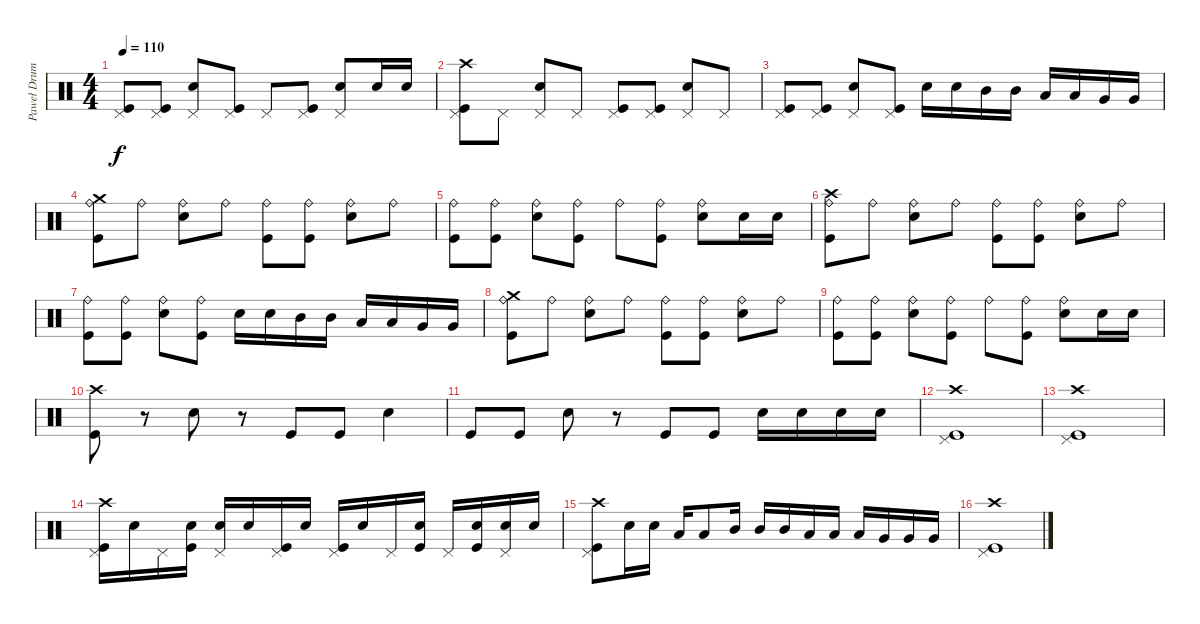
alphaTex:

\track ("Paweł Drums" "Paweł Drum") {instrument percussion}
\staff {score}
\articulation defaults
\ts (4 4)
\tempo 110
\clef neutral
\ks c
("Pedal Hi-Hat (hit)" "Kick (hit)").8{dy f} ("Pedal Hi-Hat (hit)" "Kick (hit)").8 ("Pedal Hi-Hat (hit)" "Snare (hit) 2").8 ("Pedal Hi-Hat (hit)" "Kick (hit)").8 "Pedal Hi-Hat (hit)".8 ("Pedal Hi-Hat (hit)" "Kick (hit)").8 ("Pedal Hi-Hat (hit)" "Snare (hit) 2").8 "Snare (hit) 2".16 "Snare (hit) 2".16 |
("Pedal Hi-Hat (hit)" "Crash high (hit)" "Kick (hit)").8 "Pedal Hi-Hat (hit)".8 ("Pedal Hi-Hat (hit)" "Snare (hit) 2").8 "Pedal Hi-Hat (hit)".8 ("Pedal Hi-Hat (hit)" "Kick (hit)").8 ("Pedal Hi-Hat (hit)" "Kick (hit)").8 ("Pedal Hi-Hat (hit)" "Snare (hit) 2").8 "Pedal Hi-Hat (hit)".8 |
("Pedal Hi-Hat (hit)" "Kick (hit)").8 ("Pedal Hi-Hat (hit)" "Kick (hit)").8 ("Pedal Hi-Hat (hit)" "Snare (hit) 2").8 ("Pedal Hi-Hat (hit)" "Kick (hit)").8 "Snare (hit) 2".16 "Snare (hit) 2".16 "Mid Tom (hit)".16 "Mid Tom (hit)".16 "Low Tom (hit)".16 "Low Tom (hit)".16 "Very Low Tom (hit)".16 "Very Low Tom (hit)".16 |
("Ride (bell)" "Crash medium (hit)" "Kick (hit)").8 "Ride (bell)".8 ("Ride (bell)" "Snare (hit) 2").8 "Ride (bell)".8 ("Ride (bell)" "Kick (hit)").8 ("Ride (bell)" "Kick (hit)").8 ("Ride (bell)" "Snare (hit) 2").8 "Ride (bell)".8 |
("Ride (bell)" "Kick (hit)").8 ("Ride (bell)" "Kick (hit)").8 ("Ride (bell)" "Snare (hit) 2").8 ("Ride (bell)" "Kick (hit)").8 "Ride (bell)".8 ("Ride (bell)" "Kick (hit)").8 ("Ride (bell)" "Snare (hit) 2").8 "Snare (hit) 2".16 "Snare (hit) 2".16 |
("Ride (bell)" "Crash high (hit)" "Kick (hit)").8 "Ride (bell)".8 ("Ride (bell)" "Snare (hit) 2").8 "Ride (bell)".8 ("Ride (bell)" "Kick (hit)").8 ("Ride (bell)" "Kick (hit)").8 ("Ride (bell)" "Snare (hit) 2").8 "Ride (bell)".8 |
("Ride (bell)" "Kick (hit)").8 ("Ride (bell)" "Kick (hit)").8 ("Ride (bell)" "Snare (hit) 2").8 ("Ride (bell)" "Kick (hit)").8 "Snare (hit) 2".16 "Snare (hit) 2".16 "Mid Tom (hit)".16 "Mid Tom (hit)".16 "Low Tom (hit)".16 "Low Tom (hit)".16 "Very Low Tom (hit)".16 "Very Low Tom (hit)".16 |
("Ride (bell)" "Crash medium (hit)" "Kick (hit)").8 "Ride (bell)".8 ("Ride (bell)" "Snare (hit) 2").8 "Ride (bell)".8 ("Ride (bell)" "Kick (hit)").8 ("Ride (bell)" "Kick (hit)").8 ("Ride (bell)" "Snare (hit) 2").8 "Ride (bell)".8 |
("Ride (bell)" "Kick (hit)").8 ("Ride (bell)" "Kick (hit)").8 ("Ride (bell)" "Snare (hit) 2").8 ("Ride (bell)" "Kick (hit)").8 "Ride (bell)".8 ("Ride (bell)" "Kick (hit)").8 ("Ride (bell)" "Snare (hit) 2").8 "Snare (hit) 2".16 "Snare (hit) 2".16 |
("Crash high (hit)" "Kick (hit)").8 r.8 "Snare (hit) 2".8 r.8 "Kick (hit)".8 "Kick (hit)".8 "Snare (hit) 2".4 |
"Kick (hit)".8 "Kick (hit)".8 "Snare (hit) 2".8 r.8 "Kick (hit)".8 "Kick (hit)".8 "Snare (hit) 2".16 "Snare (hit) 2".16 "Snare (hit) 2".16 "Snare (hit) 2".16 |
("Pedal Hi-Hat (hit)" "Crash high (hit)" "Kick (hit)").1 |
("Pedal Hi-Hat (hit)" "Crash high (hit)" "Kick (hit)").1 |
("Pedal Hi-Hat (hit)" "Crash high (hit)" "Kick (hit)").16 "Snare (hit)".16 "Pedal Hi-Hat (hit)".16 ("Snare (hit)" "Kick (hit)").16 ("Pedal Hi-Hat (hit)" "Snare (hit) 2").16 "Snare (hit)".16 ("Pedal Hi-Hat (hit)" "Kick (hit)").16 "Snare (hit)".16 ("Pedal Hi-Hat (hit)" "Kick (hit)").16 "Snare (hit)".16 "Pedal Hi-Hat (hit)".16 ("Snare (hit)" "Kick (hit)").16 "Pedal Hi-Hat (hit)".16 ("Snare (hit)" "Kick (hit)").16 ("Pedal Hi-Hat (hit)" "Snare (hit) 2").16 "Snare (hit) 2".16 |
("Pedal Hi-Hat (hit)" "Crash high (hit)" "Kick (hit)").8 "Snare (hit) 2".16 "Snare (hit) 2".16 "Low Tom (hit)".16 "Low Tom (hit)".8 "Mid Tom (hit)".16 "Mid Tom (hit)".16 "Mid Tom (hit)".16 "Low Tom (hit)".16 "Low Tom (hit)".16 "Low Tom (hit)".16 "Very Low Tom (hit)".16 "Very Low Tom (hit)".16 "Very Low Tom (hit)".16 |
("Pedal Hi-Hat (hit)" "Crash high (hit)" "Kick (hit)").1
